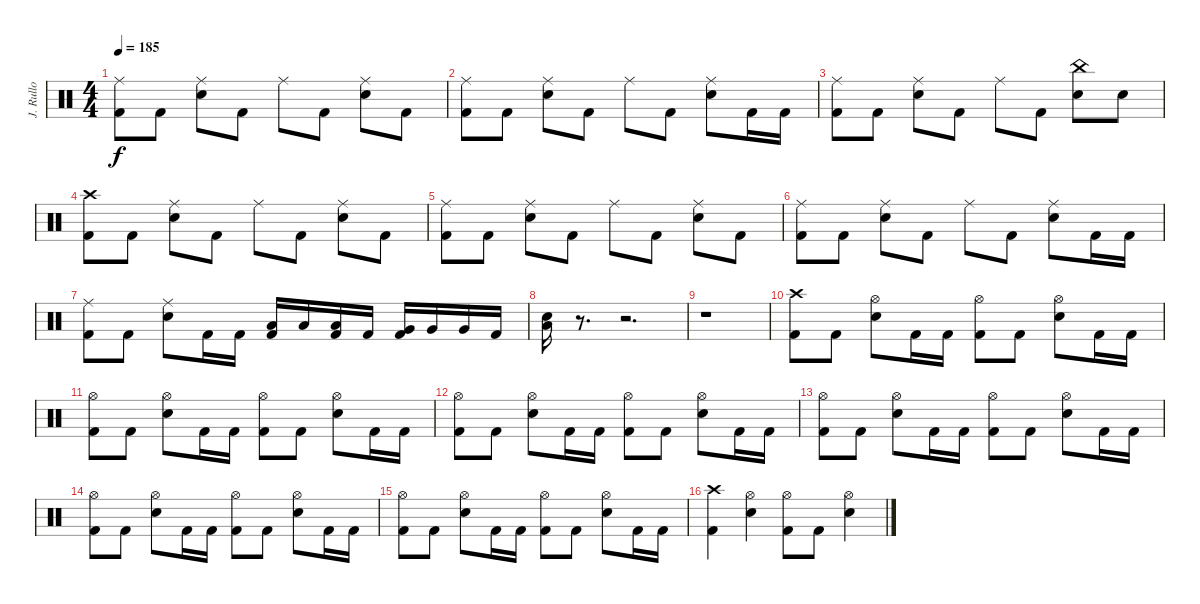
\track ("J. Rullo" "J. Rullo") {instrument percussion}
\staff {score}
\articulation defaults
\ts (4 4)
\tempo 185
\clef neutral
\ks c
("Ride (middle)" "Kick (hit) 2").8{dy f} "Kick (hit) 2".8 ("Ride (middle)" "Snare (hit) 2").8 "Kick (hit) 2".8 "Ride (middle)".8 "Kick (hit) 2".8 ("Ride (middle)" "Snare (hit) 2").8 "Kick (hit) 2".8 |
("Ride (middle)" "Kick (hit) 2").8 "Kick (hit) 2".8 ("Ride (middle)" "Snare (hit) 2").8 "Kick (hit) 2".8 "Ride (middle)".8 "Kick (hit) 2".8 ("Ride (middle)" "Snare (hit) 2").8 "Kick (hit) 2".16 "Kick (hit) 2".16 |
("Ride (middle)" "Kick (hit) 2").8 "Kick (hit) 2".8 ("Ride (middle)" "Snare (hit) 2").8 "Kick (hit) 2".8 "Ride (middle)".8 "Kick (hit) 2".8 ("China (hit)" "Snare (hit) 2").8 "Snare (hit) 2".8 |
("Crash high (hit)" "Kick (hit) 2").8 "Kick (hit) 2".8 ("Ride (middle)" "Snare (hit) 2").8 "Kick (hit) 2".8 "Ride (middle)".8 "Kick (hit) 2".8 ("Ride (middle)" "Snare (hit) 2").8 "Kick (hit) 2".8 |
("Ride (middle)" "Kick (hit) 2").8 "Kick (hit) 2".8 ("Ride (middle)" "Snare (hit) 2").8 "Kick (hit) 2".8 "Ride (middle)".8 "Kick (hit) 2".8 ("Ride (middle)" "Snare (hit) 2").8 "Kick (hit) 2".8 |
("Ride (middle)" "Kick (hit) 2").8 "Kick (hit) 2".8 ("Ride (middle)" "Snare (hit) 2").8 "Kick (hit) 2".8 "Ride (middle)".8 "Kick (hit) 2".8 ("Ride (middle)" "Snare (hit) 2").8 "Kick (hit) 2".16 "Kick (hit) 2".16 |
("Ride (middle)" "Kick (hit) 2").8 "Kick (hit) 2".8 ("Ride (middle)" "Snare (hit) 2").8 "Kick (hit) 2".16 "Kick (hit) 2".16 ("Low Tom (hit)" "Kick (hit) 2").16 "Low Tom (hit)".16 ("Low Tom (hit)" "Kick (hit) 2").16 "Kick (hit) 2".16 ("Very Low Tom (hit)" "Kick (hit) 2").16 "Very Low Tom (hit)".16 "Very Low Tom (hit)".16 "Kick (hit) 2".16 |
("Low Floor Tom (hit)" "Snare (hit) 2").16 r.8{d} r.2{d} |
r.1 |
("Crash high (hit)" "Kick (hit) 2").8 "Kick (hit) 2".8 ("Hi-Hat (open)" "Snare (hit) 2").8 "Kick (hit) 2".16 "Kick (hit) 2".16 ("Hi-Hat (open)" "Kick (hit) 2").8 "Kick (hit) 2".8 ("Hi-Hat (open)" "Snare (hit) 2").8 "Kick (hit) 2".16 "Kick (hit) 2".16 |
("Hi-Hat (open)" "Kick (hit) 2").8 "Kick (hit) 2".8 ("Hi-Hat (open)" "Snare (hit) 2").8 "Kick (hit) 2".16 "Kick (hit) 2".16 ("Hi-Hat (open)" "Kick (hit) 2").8 "Kick (hit) 2".8 ("Hi-Hat (open)" "Snare (hit) 2").8 "Kick (hit) 2".16 "Kick (hit) 2".16 |
("Hi-Hat (open)" "Kick (hit) 2").8 "Kick (hit) 2".8 ("Hi-Hat (open)" "Snare (hit) 2").8 "Kick (hit) 2".16 "Kick (hit) 2".16 ("Hi-Hat (open)" "Kick (hit) 2").8 "Kick (hit) 2".8 ("Hi-Hat (open)" "Snare (hit) 2").8 "Kick (hit) 2".16 "Kick (hit) 2".16 |
("Hi-Hat (open)" "Kick (hit) 2").8 "Kick (hit) 2".8 ("Hi-Hat (open)" "Snare (hit) 2").8 "Kick (hit) 2".16 "Kick (hit) 2".16 ("Hi-Hat (open)" "Kick (hit) 2").8 "Kick (hit) 2".8 ("Hi-Hat (open)" "Snare (hit) 2").8 "Kick (hit) 2".16 "Kick (hit) 2".16 |
("Hi-Hat (open)" "Kick (hit) 2").8 "Kick (hit) 2".8 ("Hi-Hat (open)" "Snare (hit) 2").8 "Kick (hit) 2".16 "Kick (hit) 2".16 ("Hi-Hat (open)" "Kick (hit) 2").8 "Kick (hit) 2".8 ("Hi-Hat (open)" "Snare (hit) 2").8 "Kick (hit) 2".16 "Kick (hit) 2".16 |
("Hi-Hat (open)" "Kick (hit) 2").8 "Kick (hit) 2".8 ("Hi-Hat (open)" "Snare (hit) 2").8 "Kick (hit) 2".16 "Kick (hit) 2".16 ("Hi-Hat (open)" "Kick (hit) 2").8 "Kick (hit) 2".8 ("Hi-Hat (open)" "Snare (hit) 2").8 "Kick (hit) 2".16 "Kick (hit) 2".16 |
("Crash high (hit)" "Kick (hit) 2").4 ("Hi-Hat (open)" "Snare (hit) 2").4 ("Hi-Hat (open)" "Kick (hit) 2").8 "Kick (hit) 2".8 ("Hi-Hat (open)" "Snare (hit) 2").4
